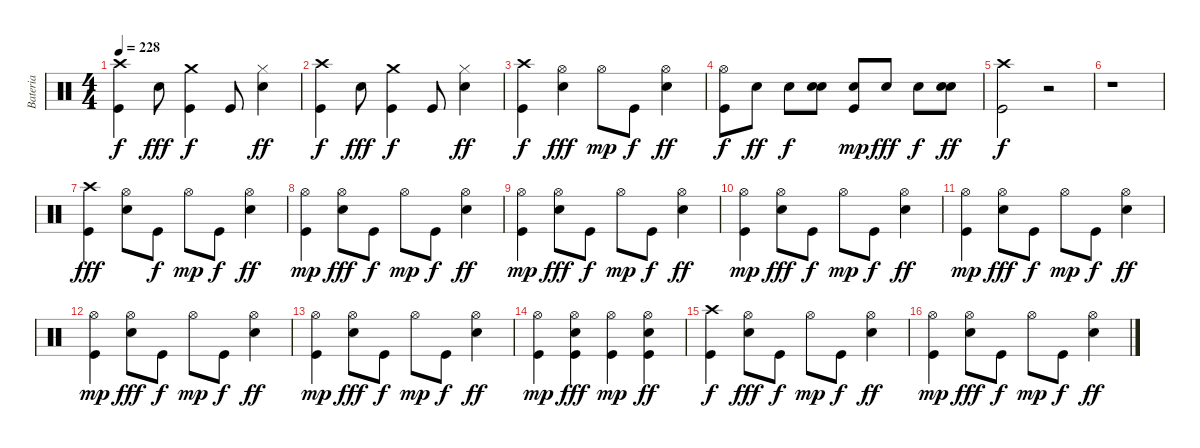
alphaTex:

\track ("Bateria" "Bateria") {instrument percussion}
\staff {score}
\articulation defaults
\ts (4 4)
\tempo 228
\clef neutral
\ks c
("Crash high (hit)" "Kick (hit)").4{dy f} "Electric Snare (hit)".8{dy fff} ("Crash medium (hit)" "Kick (hit)").4{dy f} "Kick (hit)".8 ("Hi-Hat (closed)" "Electric Snare (hit)").4{dy ff} |
("Crash high (hit)" "Kick (hit)").4{dy f} "Electric Snare (hit)".8{dy fff} ("Crash medium (hit)" "Kick (hit)").4{dy f} "Kick (hit)".8 ("Hi-Hat (closed)" "Electric Snare (hit)").4{dy ff} |
("Crash high (hit)" "Kick (hit)").4{dy f} ("Hi-Hat (open)" "Electric Snare (hit)").4{dy fff} "Hi-Hat (open)".8{dy mp} "Kick (hit)".8{dy f} ("Hi-Hat (open)" "Electric Snare (hit)").4{dy ff} |
("Hi-Hat (open)" "Kick (hit)").8{dy f} "Electric Snare (hit)".8{dy ff} "Electric Snare (hit)".8{dy f} ("Electric Snare (hit)" "Electric Snare (hit)").8 ("Electric Snare (hit)" "Kick (hit)").8{dy mp} "Electric Snare (hit)".8{dy fff} "Electric Snare (hit)".8{dy f} ("Electric Snare (hit)" "Electric Snare (hit)").8{dy ff} |
("Crash high (hit)" "Kick (hit)").2{dy f} r.2 |
r.1 |
("Crash high (hit)" "Kick (hit)").4{dy fff} ("Hi-Hat (open)" "Electric Snare (hit)").8 "Kick (hit)".8{dy f} "Hi-Hat (open)".8{dy mp} "Kick (hit)".8{dy f} ("Hi-Hat (open)" "Electric Snare (hit)").4{dy ff} |
("Hi-Hat (open)" "Kick (hit)").4{dy mp} ("Hi-Hat (open)" "Electric Snare (hit)").8{dy fff} "Kick (hit)".8{dy f} "Hi-Hat (open)".8{dy mp} "Kick (hit)".8{dy f} ("Hi-Hat (open)" "Electric Snare (hit)").4{dy ff} |
("Hi-Hat (open)" "Kick (hit)").4{dy mp} ("Hi-Hat (open)" "Electric Snare (hit)").8{dy fff} "Kick (hit)".8{dy f} "Hi-Hat (open)".8{dy mp} "Kick (hit)".8{dy f} ("Hi-Hat (open)" "Electric Snare (hit)").4{dy ff} |
("Hi-Hat (open)" "Kick (hit)").4{dy mp} ("Hi-Hat (open)" "Electric Snare (hit)").8{dy fff} "Kick (hit)".8{dy f} "Hi-Hat (open)".8{dy mp} "Kick (hit)".8{dy f} ("Hi-Hat (open)" "Electric Snare (hit)").4{dy ff} |
("Hi-Hat (open)" "Kick (hit)").4{dy mp} ("Hi-Hat (open)" "Electric Snare (hit)").8{dy fff} "Kick (hit)".8{dy f} "Hi-Hat (open)".8{dy mp} "Kick (hit)".8{dy f} ("Hi-Hat (open)" "Electric Snare (hit)").4{dy ff} |
("Hi-Hat (open)" "Kick (hit)").4{dy mp} ("Hi-Hat (open)" "Electric Snare (hit)").8{dy fff} "Kick (hit)".8{dy f} "Hi-Hat (open)".8{dy mp} "Kick (hit)".8{dy f} ("Hi-Hat (open)" "Electric Snare (hit)").4{dy ff} |
("Hi-Hat (open)" "Kick (hit)").4{dy mp} ("Hi-Hat (open)" "Electric Snare (hit)").8{dy fff} "Kick (hit)".8{dy f} "Hi-Hat (open)".8{dy mp} "Kick (hit)".8{dy f} ("Hi-Hat (open)" "Electric Snare (hit)").4{dy ff} |
("Hi-Hat (open)" "Kick (hit)").4{dy mp} ("Hi-Hat (open)" "Kick (hit)" "Electric Snare (hit)").4{dy fff} ("Hi-Hat (open)" "Kick (hit)").4{dy mp} ("Hi-Hat (open)" "Kick (hit)" "Electric Snare (hit)").4{dy ff} |
("Crash high (hit)" "Kick (hit)").4{dy f} ("Hi-Hat (open)" "Electric Snare (hit)").8{dy fff} "Kick (hit)".8{dy f} "Hi-Hat (open)".8{dy mp} "Kick (hit)".8{dy f} ("Hi-Hat (open)" "Electric Snare (hit)").4{dy ff} |
("Hi-Hat (open)" "Kick (hit)").4{dy mp} ("Hi-Hat (open)" "Electric Snare (hit)").8{dy fff} "Kick (hit)".8{dy f} "Hi-Hat (open)".8{dy mp} "Kick (hit)".8{dy f} ("Hi-Hat (open)" "Electric Snare (hit)").4{dy ff}
